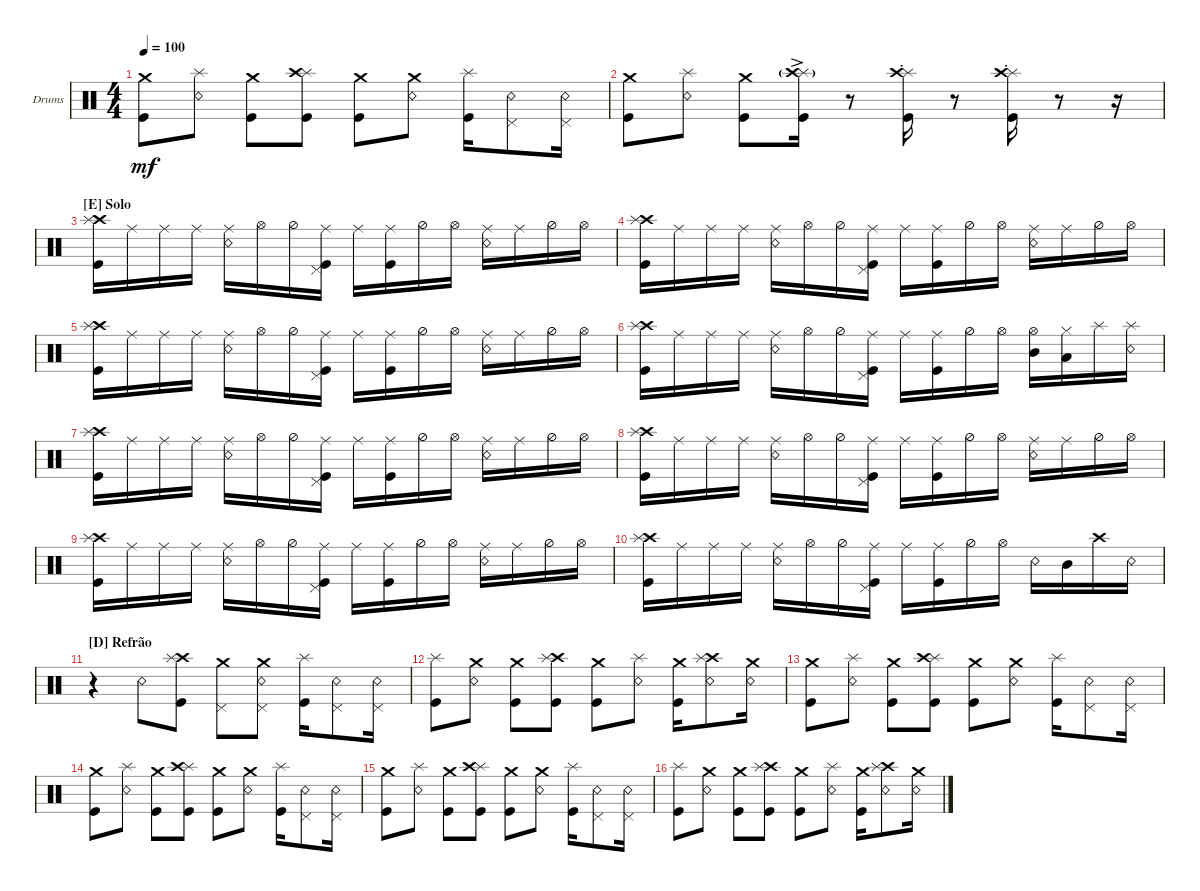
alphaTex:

\defaultSystemsLayout 4
\bracketExtendMode groupsimilarinstruments
\firstSystemTrackNameOrientation horizontal
\otherSystemsTrackNameOrientation horizontal
\track ("Bateria" "Drums") {multiBarRest instrument percussion}
\staff {score}
\articulation defaults
\ts (4 4)
\tempo 100
\clef neutral
\ks c
("Kick (hit)" "Crash medium (hit)").8{dy mf} ("Snare (rim shot)" "Splash (hit)").8 ("Kick (hit)" "Crash medium (hit)").8 ("Splash (hit)" "Kick (hit)" "Crash high (hit)").8 ("Kick (hit)" "Crash medium (hit)").8 ("Snare (rim shot)" "Crash medium (hit)").8 ("Kick (hit)" "Splash (hit)").16 ("Snare (rim shot)" "Pedal Hi-Hat (hit)").8 ("Snare (rim shot)" "Pedal Hi-Hat (hit)").16 |
("Kick (hit)" "Crash medium (hit)").8 ("Snare (rim shot)" "Splash (hit)").8 ("Kick (hit)" "Crash medium (hit)").8 ("Splash (hit)"{g} "Kick (hit)"{ac} "Crash high (hit)"{g}).16 r.8 ("Splash (hit)" "Kick (hit)"{st} "Crash high (hit)").16 r.8 ("Splash (hit)" "Kick (hit)"{st} "Crash high (hit)").16 r.8 r.16 |
\section ("E" "Solo")
("Kick (hit)" "Crash high (hit)" "Splash (hit)").16 "Ride (middle)".16 "Ride (middle)".16 "Ride (middle)".16 ("Ride (middle)" "Snare (rim shot)").16 "Hi-Hat (open)".16 "Hi-Hat (half)".16 ("Ride (middle)" "Kick (hit)" "Pedal Hi-Hat (hit)").16 "Ride (middle)".16 ("Ride (middle)" "Kick (hit)").16 "Hi-Hat (half)".16 "Hi-Hat (open)".16 ("Ride (middle)" "Snare (rim shot)").16 "Ride (middle)".16 "Hi-Hat (half)".16 "Hi-Hat (open)".16 |
("Kick (hit)" "Crash high (hit)" "Splash (hit)").16 "Ride (middle)".16 "Ride (middle)".16 "Ride (middle)".16 ("Ride (middle)" "Snare (rim shot)").16 "Hi-Hat (open)".16 "Hi-Hat (half)".16 ("Ride (middle)" "Kick (hit)" "Pedal Hi-Hat (hit)").16 "Ride (middle)".16 ("Ride (middle)" "Kick (hit)").16 "Hi-Hat (half)".16 "Hi-Hat (open)".16 ("Ride (middle)" "Snare (rim shot)").16 "Ride (middle)".16 "Hi-Hat (half)".16 "Hi-Hat (open)".16 |
("Kick (hit)" "Crash high (hit)" "Splash (hit)").16 "Ride (middle)".16 "Ride (middle)".16 "Ride (middle)".16 ("Ride (middle)" "Snare (rim shot)").16 "Hi-Hat (open)".16 "Hi-Hat (half)".16 ("Ride (middle)" "Kick (hit)" "Pedal Hi-Hat (hit)").16 "Ride (middle)".16 ("Ride (middle)" "Kick (hit)").16 "Hi-Hat (half)".16 "Hi-Hat (open)".16 ("Ride (middle)" "Snare (rim shot)").16 "Ride (middle)".16 "Hi-Hat (half)".16 "Hi-Hat (open)".16 |
("Kick (hit)" "Crash high (hit)" "Splash (hit)").16 "Ride (middle)".16 "Ride (middle)".16 "Ride (middle)".16 ("Ride (middle)" "Snare (rim shot)").16 "Hi-Hat (open)".16 "Hi-Hat (half)".16 ("Ride (middle)" "Kick (hit)" "Pedal Hi-Hat (hit)").16 "Ride (middle)".16 ("Ride (middle)" "Kick (hit)").16 "Hi-Hat (half)".16 "Hi-Hat (open)".16 ("Mid Tom (hit)" "Hi-Hat (open)").16 ("Low Tom (hit)" "Hi-Hat (closed)").16 "Splash (hit)".16 ("Snare (rim shot)" "Splash (hit)").16 |
("Kick (hit)" "Crash high (hit)" "Splash (hit)").16 "Ride (middle)".16 "Ride (middle)".16 "Ride (middle)".16 ("Ride (middle)" "Snare (rim shot)").16 "Hi-Hat (open)".16 "Hi-Hat (half)".16 ("Ride (middle)" "Kick (hit)" "Pedal Hi-Hat (hit)").16 "Ride (middle)".16 ("Ride (middle)" "Kick (hit)").16 "Hi-Hat (half)".16 "Hi-Hat (open)".16 ("Ride (middle)" "Snare (rim shot)").16 "Ride (middle)".16 "Hi-Hat (half)".16 "Hi-Hat (open)".16 |
("Kick (hit)" "Crash high (hit)" "Splash (hit)").16 "Ride (middle)".16 "Ride (middle)".16 "Ride (middle)".16 ("Ride (middle)" "Snare (rim shot)").16 "Hi-Hat (open)".16 "Hi-Hat (half)".16 ("Ride (middle)" "Kick (hit)" "Pedal Hi-Hat (hit)").16 "Ride (middle)".16 ("Ride (middle)" "Kick (hit)").16 "Hi-Hat (half)".16 "Hi-Hat (open)".16 ("Ride (middle)" "Snare (rim shot)").16 "Ride (middle)".16 "Hi-Hat (half)".16 "Hi-Hat (open)".16 |
("Kick (hit)" "Crash high (hit)" "Splash (hit)").16 "Ride (middle)".16 "Ride (middle)".16 "Ride (middle)".16 ("Ride (middle)" "Snare (rim shot)").16 "Hi-Hat (open)".16 "Hi-Hat (half)".16 ("Ride (middle)" "Kick (hit)" "Pedal Hi-Hat (hit)").16 "Ride (middle)".16 ("Ride (middle)" "Kick (hit)").16 "Hi-Hat (half)".16 "Hi-Hat (open)".16 ("Ride (middle)" "Snare (rim shot)").16 "Ride (middle)".16 "Hi-Hat (half)".16 "Hi-Hat (open)".16 |
("Kick (hit)" "Crash high (hit)" "Splash (hit)").16 "Ride (middle)".16 "Ride (middle)".16 "Ride (middle)".16 ("Ride (middle)" "Snare (rim shot)").16 "Hi-Hat (open)".16 "Hi-Hat (half)".16 ("Ride (middle)" "Kick (hit)" "Pedal Hi-Hat (hit)").16 "Ride (middle)".16 ("Ride (middle)" "Kick (hit)").16 "Hi-Hat (half)".16 "Hi-Hat (open)".16 "Snare (rim shot)".16 "Mid Tom (hit)".16 "Crash high (hit)".16 "Snare (rim shot)".16 |
\section ("D" "Refrão")
r.4 "Snare (rim shot)".8 ("Kick (hit)" "Crash high (hit)" "Splash (hit)").8 ("Pedal Hi-Hat (hit)" "Crash medium (hit)").8 ("Pedal Hi-Hat (hit)" "Snare (rim shot)" "Crash medium (hit)").8 ("Kick (hit)" "Splash (hit)").16 ("Snare (rim shot)" "Pedal Hi-Hat (hit)").8 ("Snare (rim shot)" "Pedal Hi-Hat (hit)").16 |
("Kick (hit)" "Splash (hit)").8 ("Snare (rim shot)" "Crash medium (hit)").8 ("Kick (hit)" "Crash medium (hit)").8 ("Kick (hit)" "Crash high (hit)" "Splash (hit)").8 ("Kick (hit)" "Crash medium (hit)").8 ("Snare (rim shot)" "Splash (hit)").8 ("Kick (hit)" "Crash medium (hit)").16 ("Snare (rim shot)" "Crash high (hit)" "Splash (hit)").8 ("Snare (rim shot)" "Crash medium (hit)").16 |
("Kick (hit)" "Crash medium (hit)").8 ("Snare (rim shot)" "Splash (hit)").8 ("Kick (hit)" "Crash medium (hit)").8 ("Splash (hit)" "Kick (hit)" "Crash high (hit)").8 ("Kick (hit)" "Crash medium (hit)").8 ("Snare (rim shot)" "Crash medium (hit)").8 ("Kick (hit)" "Splash (hit)").16 ("Snare (rim shot)" "Pedal Hi-Hat (hit)").8 ("Snare (rim shot)" "Pedal Hi-Hat (hit)").16 |
("Kick (hit)" "Crash medium (hit)").8 ("Snare (rim shot)" "Splash (hit)").8 ("Kick (hit)" "Crash medium (hit)").8 ("Splash (hit)" "Kick (hit)" "Crash high (hit)").8 ("Kick (hit)" "Crash medium (hit)").8 ("Snare (rim shot)" "Crash medium (hit)").8 ("Kick (hit)" "Splash (hit)").16 ("Snare (rim shot)" "Pedal Hi-Hat (hit)").8 ("Snare (rim shot)" "Pedal Hi-Hat (hit)").16 |
("Kick (hit)" "Crash medium (hit)").8 ("Snare (rim shot)" "Splash (hit)").8 ("Kick (hit)" "Crash medium (hit)").8 ("Splash (hit)" "Kick (hit)" "Crash high (hit)").8 ("Kick (hit)" "Crash medium (hit)").8 ("Snare (rim shot)" "Crash medium (hit)").8 ("Kick (hit)" "Splash (hit)").16 ("Snare (rim shot)" "Pedal Hi-Hat (hit)").8 ("Snare (rim shot)" "Pedal Hi-Hat (hit)").16 |
("Kick (hit)" "Splash (hit)").8 ("Snare (rim shot)" "Crash medium (hit)").8 ("Kick (hit)" "Crash medium (hit)").8 ("Kick (hit)" "Crash high (hit)" "Splash (hit)").8 ("Kick (hit)" "Crash medium (hit)").8 ("Snare (rim shot)" "Splash (hit)").8 ("Kick (hit)" "Crash medium (hit)").16 ("Snare (rim shot)" "Crash high (hit)" "Splash (hit)").8 ("Snare (rim shot)" "Crash medium (hit)").16
